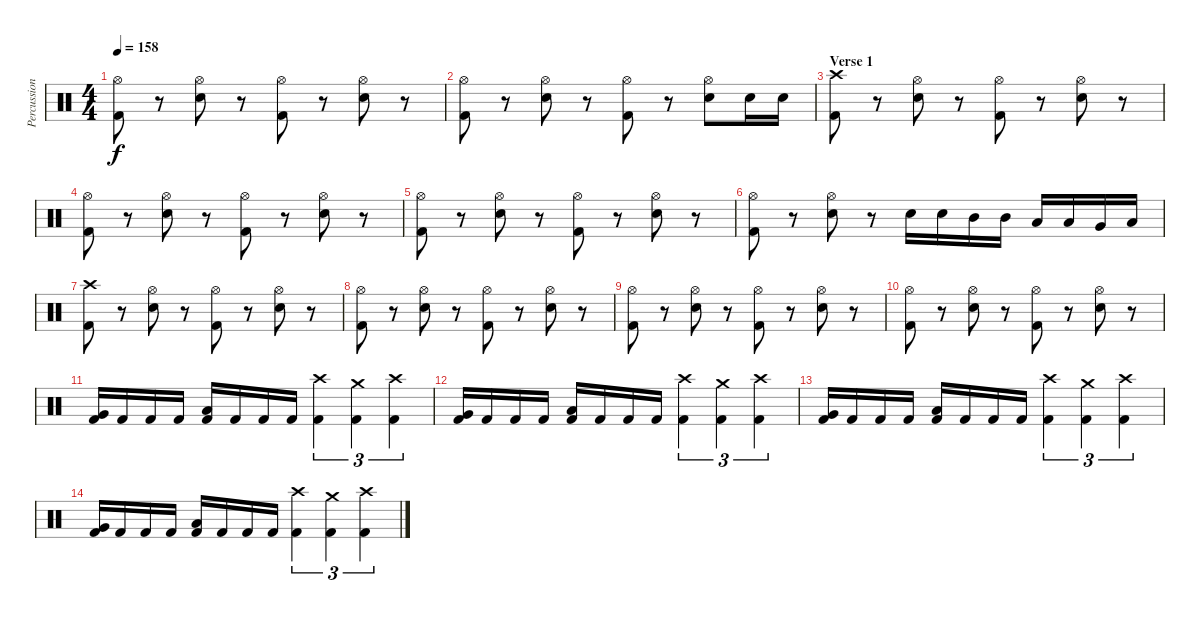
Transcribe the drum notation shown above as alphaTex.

\track ("Percussion" "Percussion") {instrument percussion}
\staff {score}
\articulation defaults
\ts (4 4)
\tempo 158
\clef neutral
\ks c
("Hi-Hat (open)" "Kick (hit) 2").8{dy f} r.8 ("Hi-Hat (open)" "Snare (hit) 2").8 r.8 ("Hi-Hat (open)" "Kick (hit) 2").8 r.8 ("Hi-Hat (open)" "Snare (hit) 2").8 r.8 |
("Hi-Hat (open)" "Kick (hit) 2").8 r.8 ("Hi-Hat (open)" "Snare (hit) 2").8 r.8 ("Hi-Hat (open)" "Kick (hit) 2").8 r.8 ("Hi-Hat (open)" "Snare (hit) 2").8 "Snare (hit) 2".16 "Snare (hit) 2".16 |
\section ("" "Verse 1")
("Crash high (hit)" "Kick (hit) 2").8 r.8 ("Hi-Hat (open)" "Snare (hit) 2").8 r.8 ("Hi-Hat (open)" "Kick (hit) 2").8 r.8 ("Hi-Hat (open)" "Snare (hit) 2").8 r.8 |
("Hi-Hat (open)" "Kick (hit) 2").8 r.8 ("Hi-Hat (open)" "Snare (hit) 2").8 r.8 ("Hi-Hat (open)" "Kick (hit) 2").8 r.8 ("Hi-Hat (open)" "Snare (hit) 2").8 r.8 |
("Hi-Hat (open)" "Kick (hit) 2").8 r.8 ("Hi-Hat (open)" "Snare (hit) 2").8 r.8 ("Hi-Hat (open)" "Kick (hit) 2").8 r.8 ("Hi-Hat (open)" "Snare (hit) 2").8 r.8 |
("Hi-Hat (open)" "Kick (hit) 2").8 r.8 ("Hi-Hat (open)" "Snare (hit) 2").8 r.8 "Snare (hit) 2".16 "Snare (hit) 2".16 "Mid Tom (hit)".16 "Mid Tom (hit)".16 "Low Tom (hit)".16 "Low Tom (hit)".16 "Very Low Tom (hit)".16 "Low Floor Tom (hit)".16 |
("Crash high (hit)" "Kick (hit) 2").8 r.8 ("Hi-Hat (open)" "Snare (hit) 2").8 r.8 ("Hi-Hat (open)" "Kick (hit) 2").8 r.8 ("Hi-Hat (open)" "Snare (hit) 2").8 r.8 |
("Hi-Hat (open)" "Kick (hit) 2").8 r.8 ("Hi-Hat (open)" "Snare (hit) 2").8 r.8 ("Hi-Hat (open)" "Kick (hit) 2").8 r.8 ("Hi-Hat (open)" "Snare (hit) 2").8 r.8 |
("Hi-Hat (open)" "Kick (hit) 2").8 r.8 ("Hi-Hat (open)" "Snare (hit) 2").8 r.8 ("Hi-Hat (open)" "Kick (hit) 2").8 r.8 ("Hi-Hat (open)" "Snare (hit) 2").8 r.8 |
("Hi-Hat (open)" "Kick (hit) 2").8 r.8 ("Hi-Hat (open)" "Snare (hit) 2").8 r.8 ("Hi-Hat (open)" "Kick (hit) 2").8 r.8 ("Hi-Hat (open)" "Snare (hit) 2").8 r.8 |
("Very Low Tom (hit)" "Kick (hit) 2").16 "Kick (hit) 2".16 "Kick (hit) 2".16 "Kick (hit) 2".16 ("Low Floor Tom (hit)" "Kick (hit) 2").16 "Kick (hit) 2".16 "Kick (hit) 2".16 "Kick (hit) 2".16 ("Crash high (hit)" "Kick (hit) 2").4{tu (3 2)} ("Crash medium (hit)" "Kick (hit) 2").4{tu (3 2)} ("Crash high (hit)" "Kick (hit) 2").4{tu (3 2)} |
("Very Low Tom (hit)" "Kick (hit) 2").16 "Kick (hit) 2".16 "Kick (hit) 2".16 "Kick (hit) 2".16 ("Low Floor Tom (hit)" "Kick (hit) 2").16 "Kick (hit) 2".16 "Kick (hit) 2".16 "Kick (hit) 2".16 ("Crash high (hit)" "Kick (hit) 2").4{tu (3 2)} ("Crash medium (hit)" "Kick (hit) 2").4{tu (3 2)} ("Crash high (hit)" "Kick (hit) 2").4{tu (3 2)} |
("Very Low Tom (hit)" "Kick (hit) 2").16 "Kick (hit) 2".16 "Kick (hit) 2".16 "Kick (hit) 2".16 ("Low Floor Tom (hit)" "Kick (hit) 2").16 "Kick (hit) 2".16 "Kick (hit) 2".16 "Kick (hit) 2".16 ("Crash high (hit)" "Kick (hit) 2").4{tu (3 2)} ("Crash medium (hit)" "Kick (hit) 2").4{tu (3 2)} ("Crash high (hit)" "Kick (hit) 2").4{tu (3 2)} |
("Very Low Tom (hit)" "Kick (hit) 2").16 "Kick (hit) 2".16 "Kick (hit) 2".16 "Kick (hit) 2".16 ("Low Floor Tom (hit)" "Kick (hit) 2").16 "Kick (hit) 2".16 "Kick (hit) 2".16 "Kick (hit) 2".16 ("Crash high (hit)" "Kick (hit) 2").4{tu (3 2)} ("Crash medium (hit)" "Kick (hit) 2").4{tu (3 2)} ("Crash high (hit)" "Kick (hit) 2").4{tu (3 2)}
